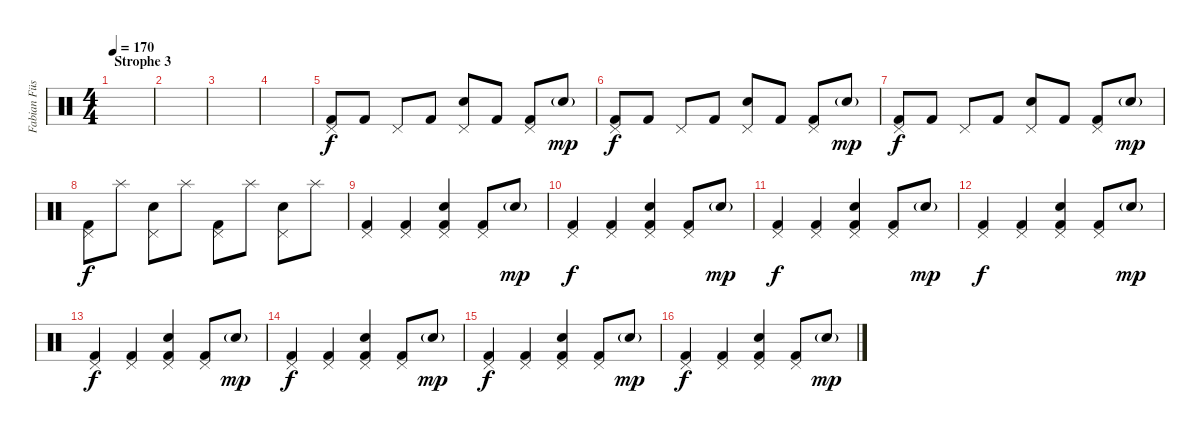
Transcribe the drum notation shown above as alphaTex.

\track ("Fabian Füss" "Fabian Füs") {instrument percussion}
\staff {score}
\articulation defaults
\ts (4 4)
\section ("" "Strophe 3")
\tempo 170
\clef neutral
\ks c
|
|
|
|
("Pedal Hi-Hat (hit)" "Kick (hit) 2").8 "Kick (hit) 2".8 "Pedal Hi-Hat (hit)".8 "Kick (hit) 2".8 ("Pedal Hi-Hat (hit)" "Snare (hit) 2").8 "Kick (hit) 2".8 ("Pedal Hi-Hat (hit)" "Kick (hit) 2").8 "Snare (hit) 2"{g}.8{dy mp} |
("Pedal Hi-Hat (hit)" "Kick (hit) 2").8{dy f} "Kick (hit) 2".8 "Pedal Hi-Hat (hit)".8 "Kick (hit) 2".8 ("Pedal Hi-Hat (hit)" "Snare (hit) 2").8 "Kick (hit) 2".8 ("Pedal Hi-Hat (hit)" "Kick (hit) 2").8 "Snare (hit) 2"{g}.8{dy mp} |
("Pedal Hi-Hat (hit)" "Kick (hit) 2").8{dy f} "Kick (hit) 2".8 "Pedal Hi-Hat (hit)".8 "Kick (hit) 2".8 ("Pedal Hi-Hat (hit)" "Snare (hit) 2").8 "Kick (hit) 2".8 ("Pedal Hi-Hat (hit)" "Kick (hit) 2").8 "Snare (hit) 2"{g}.8{dy mp} |
("Pedal Hi-Hat (hit)" "Kick (hit) 2").8{dy f} "Splash (hit)".8 ("Pedal Hi-Hat (hit)" "Snare (hit) 2").8 "Splash (hit)".8 ("Pedal Hi-Hat (hit)" "Kick (hit) 2").8 "Splash (hit)".8 ("Pedal Hi-Hat (hit)" "Snare (hit) 2").8 "Splash (hit)".8 |
("Pedal Hi-Hat (hit)" "Kick (hit) 2").4 ("Pedal Hi-Hat (hit)" "Kick (hit) 2").4 ("Pedal Hi-Hat (hit)" "Snare (hit) 2" "Kick (hit) 2").4 ("Pedal Hi-Hat (hit)" "Kick (hit) 2").8 "Snare (hit) 2"{g}.8{dy mp} |
("Pedal Hi-Hat (hit)" "Kick (hit) 2").4{dy f} ("Pedal Hi-Hat (hit)" "Kick (hit) 2").4 ("Pedal Hi-Hat (hit)" "Snare (hit) 2" "Kick (hit) 2").4 ("Pedal Hi-Hat (hit)" "Kick (hit) 2").8 "Snare (hit) 2"{g}.8{dy mp} |
("Pedal Hi-Hat (hit)" "Kick (hit) 2").4{dy f} ("Pedal Hi-Hat (hit)" "Kick (hit) 2").4 ("Pedal Hi-Hat (hit)" "Snare (hit) 2" "Kick (hit) 2").4 ("Pedal Hi-Hat (hit)" "Kick (hit) 2").8 "Snare (hit) 2"{g}.8{dy mp} |
("Pedal Hi-Hat (hit)" "Kick (hit) 2").4{dy f} ("Pedal Hi-Hat (hit)" "Kick (hit) 2").4 ("Pedal Hi-Hat (hit)" "Snare (hit) 2" "Kick (hit) 2").4 ("Pedal Hi-Hat (hit)" "Kick (hit) 2").8 "Snare (hit) 2"{g}.8{dy mp} |
("Pedal Hi-Hat (hit)" "Kick (hit) 2").4{dy f} ("Pedal Hi-Hat (hit)" "Kick (hit) 2").4 ("Pedal Hi-Hat (hit)" "Snare (hit) 2" "Kick (hit) 2").4 ("Pedal Hi-Hat (hit)" "Kick (hit) 2").8 "Snare (hit) 2"{g}.8{dy mp} |
("Pedal Hi-Hat (hit)" "Kick (hit) 2").4{dy f} ("Pedal Hi-Hat (hit)" "Kick (hit) 2").4 ("Pedal Hi-Hat (hit)" "Snare (hit) 2" "Kick (hit) 2").4 ("Pedal Hi-Hat (hit)" "Kick (hit) 2").8 "Snare (hit) 2"{g}.8{dy mp} |
("Pedal Hi-Hat (hit)" "Kick (hit) 2").4{dy f} ("Pedal Hi-Hat (hit)" "Kick (hit) 2").4 ("Pedal Hi-Hat (hit)" "Snare (hit) 2" "Kick (hit) 2").4 ("Pedal Hi-Hat (hit)" "Kick (hit) 2").8 "Snare (hit) 2"{g}.8{dy mp} |
("Pedal Hi-Hat (hit)" "Kick (hit) 2").4{dy f} ("Pedal Hi-Hat (hit)" "Kick (hit) 2").4 ("Pedal Hi-Hat (hit)" "Snare (hit) 2" "Kick (hit) 2").4 ("Pedal Hi-Hat (hit)" "Kick (hit) 2").8 "Snare (hit) 2"{g}.8{dy mp}
